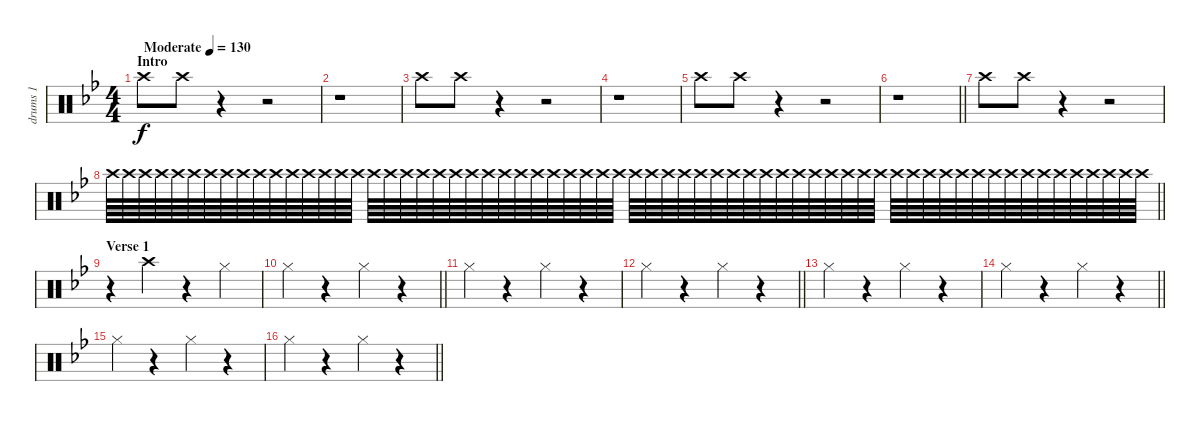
\track ("drums 1" "drums 1") {instrument percussion}
\staff {score}
\articulation defaults
\ts (4 4)
\section ("" "Intro")
\tempo (130 "Moderate")
\clef neutral
\ks bb "Crash high (hit)".8{dy f} "Crash high (hit)".8
r.4 r.2 |
r.1 |
"Crash high (hit)".8 "Crash high (hit)".8 r.4 r.2 |
r.1 |
"Crash high (hit)".8 "Crash high (hit)".8 r.4 r.2 |
\barLineRight lightlight
r.1 |
\section ("" "")
"Crash high (hit)".8 "Crash high (hit)".8 r.4 r.2 |
\barLineRight lightlight "Crash high (hit)".64 "Crash high (hit)".64 "Crash high (hit)".64 "Crash high (hit)".64 "Crash high (hit)".64 "Crash high (hit)".64 "Crash high (hit)".64 "Crash high (hit)".64 "Crash high (hit)".64 "Crash high (hit)".64 "Crash high (hit)".64 "Crash high (hit)".64 "Crash high (hit)".64 "Crash high (hit)".64 "Crash high (hit)".64 "Crash high (hit)".64 "Crash high (hit)".64 "Crash high (hit)".64 "Crash high (hit)".64 "Crash high (hit)".64 "Crash high (hit)".64 "Crash high (hit)".64 "Crash high (hit)".64 "Crash high (hit)".64 "Crash high (hit)".64 "Crash high (hit)".64 "Crash high (hit)".64 "Crash high (hit)".64 "Crash high (hit)".64 "Crash high (hit)".64 "Crash high (hit)".64 "Crash high (hit)".64 "Crash high (hit)".64 "Crash high (hit)".64 "Crash high (hit)".64 "Crash high (hit)".64 "Crash high (hit)".64 "Crash high (hit)".64 "Crash high (hit)".64 "Crash high (hit)".64 "Crash high (hit)".64 "Crash high (hit)".64 "Crash high (hit)".64 "Crash high (hit)".64 "Crash high (hit)".64 "Crash high (hit)".64 "Crash high (hit)".64 "Crash high (hit)".64 "Crash high (hit)".64 "Crash high (hit)".64 "Crash high (hit)".64 "Crash high (hit)".64 "Crash high (hit)".64 "Crash high (hit)".64 "Crash high (hit)".64 "Crash high (hit)".64 "Crash high (hit)".64 "Crash high (hit)".64 "Crash high (hit)".64 "Crash high (hit)".64 "Crash high (hit)".64 "Crash high (hit)".64 "Crash high (hit)".64 "Crash high (hit)".64
|
\section ("" "Verse 1")
r.4 "Crash high (hit)".4 r.4 "Hi-Hat (closed)".4 |
\barLineRight lightlight "Hi-Hat (closed)".4
r.4 "Hi-Hat (closed)".4 r.4 |
"Hi-Hat (closed)".4 r.4 "Hi-Hat (closed)".4 r.4 |
\barLineRight lightlight "Hi-Hat (closed)".4
r.4 "Hi-Hat (closed)".4 r.4 |
"Hi-Hat (closed)".4 r.4 "Hi-Hat (closed)".4 r.4 |
\barLineRight lightlight "Hi-Hat (closed)".4
r.4 "Hi-Hat (closed)".4 r.4 |
"Hi-Hat (closed)".4 r.4 "Hi-Hat (closed)".4 r.4 |
\barLineRight lightlight "Hi-Hat (closed)".4
r.4 "Hi-Hat (closed)".4 r.4
